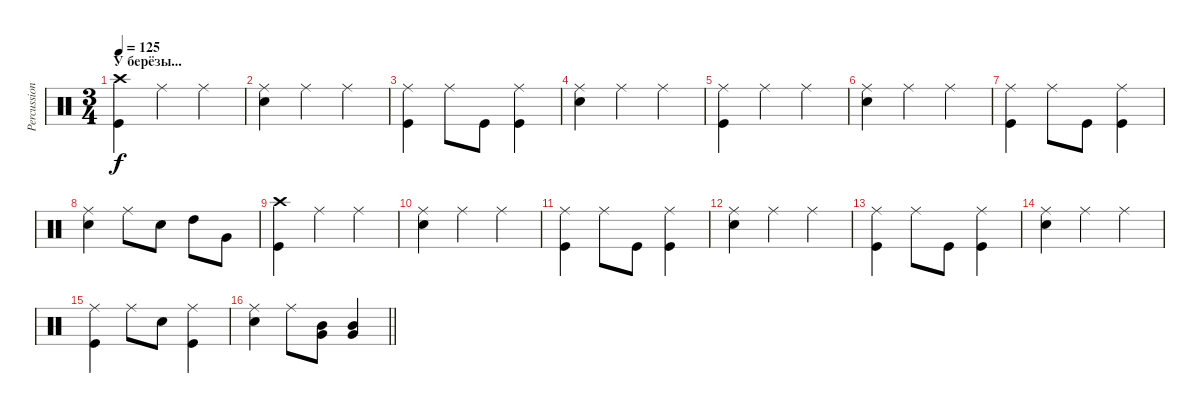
\track ("Percussion" "Percussion") {instrument percussion}
\staff {score}
\articulation defaults
\ts (3 4)
\section ("" "У берёзы...")
\tempo 125
\clef neutral
\ks c
("Crash high (hit)" "Kick (hit)").4{dy f} "Ride (middle)".4 "Ride (middle)".4 |
("Ride (middle)" "Snare (hit) 2").4 "Ride (middle)".4 "Ride (middle)".4 |
("Ride (middle)" "Kick (hit)").4 "Ride (middle)".8 "Kick (hit)".8 ("Ride (middle)" "Kick (hit)").4 |
("Ride (middle)" "Snare (hit) 2").4 "Ride (middle)".4 "Ride (middle)".4 |
("Ride (middle)" "Kick (hit)").4 "Ride (middle)".4 "Ride (middle)".4 |
("Ride (middle)" "Snare (hit) 2").4 "Ride (middle)".4 "Ride (middle)".4 |
("Ride (middle)" "Kick (hit)").4 "Ride (middle)".8 "Kick (hit)".8 ("Ride (middle)" "Kick (hit)").4 |
("Ride (middle)" "Snare (hit) 2").4 "Ride (middle)".8 "Snare (hit) 2".8 "High Tom (hit)".8 "Very Low Tom (hit)".8 |
("Crash high (hit)" "Kick (hit)").4 "Ride (middle)".4 "Ride (middle)".4 |
("Ride (middle)" "Snare (hit) 2").4 "Ride (middle)".4 "Ride (middle)".4 |
("Ride (middle)" "Kick (hit)").4 "Ride (middle)".8 "Kick (hit)".8 ("Ride (middle)" "Kick (hit)").4 |
("Ride (middle)" "Snare (hit) 2").4 "Ride (middle)".4 "Ride (middle)".4 |
("Ride (middle)" "Kick (hit)").4 "Ride (middle)".8 "Kick (hit)".8 ("Ride (middle)" "Kick (hit)").4 |
("Ride (middle)" "Snare (hit) 2").4 "Ride (middle)".4 "Ride (middle)".4 |
("Ride (middle)" "Kick (hit)").4 "Ride (middle)".8 "Snare (hit) 2".8 ("Ride (middle)" "Kick (hit)").4 |
\barLineRight lightlight
("Ride (middle)" "Snare (hit) 2").4 "Ride (middle)".8 ("Mid Tom (hit)" "Very Low Tom (hit)").8 ("Mid Tom (hit)" "Very Low Tom (hit)").4
